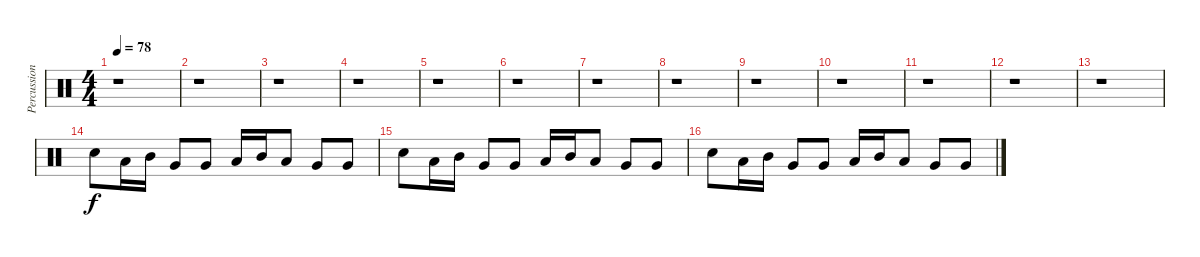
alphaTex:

\track ("Percussion" "Percussion") {instrument percussion}
\staff {score}
\articulation defaults
\ts (4 4)
\tempo 78
\clef neutral
\ks c
r.1{dy f} |
r.1 |
r.1 |
r.1 |
r.1 |
r.1 |
r.1 |
r.1 |
r.1 |
r.1 |
r.1 |
r.1 |
r.1 |
"Snare (hit) 2".8 "Low Floor Tom (hit)".16 "Mid Tom (hit)".16 "Very Low Tom (hit)".8 "Very Low Tom (hit)".8 "Low Floor Tom (hit)".16 "Mid Tom (hit)".16 "Low Floor Tom (hit)".8 "Very Low Tom (hit)".8 "Very Low Tom (hit)".8 |
"Snare (hit) 2".8 "Low Floor Tom (hit)".16 "Mid Tom (hit)".16 "Very Low Tom (hit)".8 "Very Low Tom (hit)".8 "Low Floor Tom (hit)".16 "Mid Tom (hit)".16 "Low Floor Tom (hit)".8 "Very Low Tom (hit)".8 "Very Low Tom (hit)".8 |
"Snare (hit) 2".8 "Low Floor Tom (hit)".16 "Mid Tom (hit)".16 "Very Low Tom (hit)".8 "Very Low Tom (hit)".8 "Low Floor Tom (hit)".16 "Mid Tom (hit)".16 "Low Floor Tom (hit)".8 "Very Low Tom (hit)".8 "Very Low Tom (hit)".8
